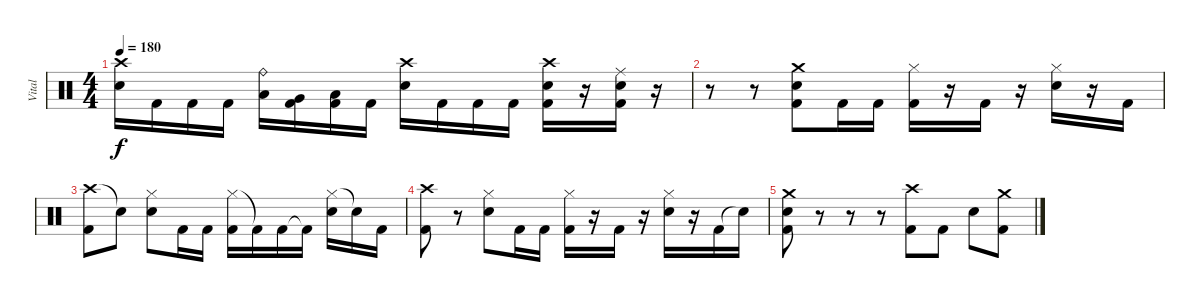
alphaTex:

\track ("Vital" "Vital") {instrument percussion}
\staff {score}
\articulation defaults
\ts (4 4)
\tempo 180
\clef neutral
\ks c
("Snare (hit) 2" "Crash high (hit)").16{dy f} "Kick (hit) 2".16 "Kick (hit) 2".16 "Kick (hit) 2".16 ("Low Tom (hit)" "Ride (bell)").16 ("Very Low Tom (hit)" "Kick (hit) 2").16 ("Low Floor Tom (hit)" "Kick (hit) 2").16 "Kick (hit) 2".16 ("Snare (hit) 2" "Crash high (hit)").16 "Kick (hit) 2".16 "Kick (hit) 2".16 "Kick (hit) 2".16 ("Crash high (hit)" "Snare (hit) 2" "Kick (hit) 2").16 r.16 ("Ride (middle)" "Snare (hit) 2" "Kick (hit) 2").16 r.16 |
r.8 r.8 ("Crash medium (hit)" "Snare (hit) 2" "Kick (hit) 2").8 "Kick (hit) 2".16 "Kick (hit) 2".16 ("Hi-Hat (closed)" "Kick (hit) 2").16 r.16 "Kick (hit) 2".16 r.16 ("Hi-Hat (closed)" "Snare (hit) 2").16 r.16 "Kick (hit) 2".16 |
("Crash high (hit)" "Kick (hit) 2").8 "Electric Snare (hit)"{t}.8 ("Hi-Hat (closed)" "Snare (hit) 2").8 "Kick (hit) 2".16 "Kick (hit) 2".16 ("Hi-Hat (closed)" "Kick (hit) 2").16 "Kick (hit) 2"{t}.16 "Kick (hit) 2".16 "Kick (hit) 2"{t}.16 ("Hi-Hat (closed)" "Snare (hit) 2").16 "Electric Snare (hit)"{t}.16 "Kick (hit) 2".16 |
("Crash high (hit)" "Kick (hit) 2").8 r.8 ("Hi-Hat (closed)" "Snare (hit) 2").8 "Kick (hit) 2".16 "Kick (hit) 2".16 ("Hi-Hat (closed)" "Kick (hit) 2").16 r.16 "Kick (hit) 2".16 r.16 ("Hi-Hat (closed)" "Snare (hit) 2").16 r.16 "Kick (hit) 2".16 "Snare (hit)"{t}.16 |
("Crash medium (hit)" "Snare (hit) 2" "Kick (hit) 2").8 r.8 r.8 r.8 ("Crash high (hit)" "Kick (hit) 2").8 "Kick (hit) 2".8 "Snare (hit) 2".8 ("Crash medium (hit)" "Kick (hit) 2").8
